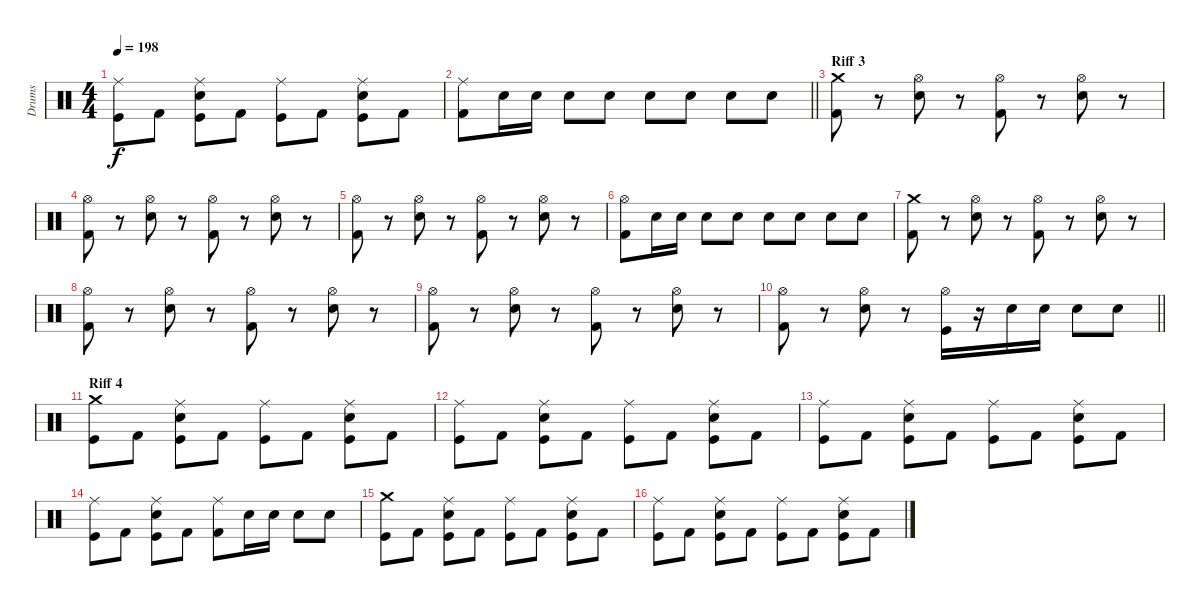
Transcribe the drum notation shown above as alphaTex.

\track ("Drums" "Drums") {instrument percussion}
\staff {score}
\articulation defaults
\ts (4 4)
\tempo 198
\clef neutral
\ks c
("Ride (middle)" "Kick (hit)").8{dy f} "Kick (hit) 2".8 ("Ride (middle)" "Electric Snare (hit)" "Kick (hit)").8 "Kick (hit) 2".8 ("Ride (middle)" "Kick (hit)").8 "Kick (hit) 2".8 ("Ride (middle)" "Electric Snare (hit)" "Kick (hit)").8 "Kick (hit) 2".8 |
\barLineRight lightlight
("Ride (middle)" "Kick (hit) 2").8 "Electric Snare (hit)".16 "Electric Snare (hit)".16 "Electric Snare (hit)".8 "Electric Snare (hit)".8 "Electric Snare (hit)".8 "Electric Snare (hit)".8 "Electric Snare (hit)".8 "Electric Snare (hit)".8 |
\section ("" "Riff 3")
("Crash medium (hit)" "Kick (hit) 2").8 r.8 ("Hi-Hat (open)" "Electric Snare (hit)").8 r.8 ("Hi-Hat (open)" "Kick (hit) 2").8 r.8 ("Hi-Hat (open)" "Electric Snare (hit)").8 r.8 |
("Hi-Hat (open)" "Kick (hit) 2").8 r.8 ("Hi-Hat (open)" "Electric Snare (hit)").8 r.8 ("Hi-Hat (open)" "Kick (hit) 2").8 r.8 ("Hi-Hat (open)" "Electric Snare (hit)").8 r.8 |
("Hi-Hat (open)" "Kick (hit) 2").8 r.8 ("Hi-Hat (open)" "Electric Snare (hit)").8 r.8 ("Hi-Hat (open)" "Kick (hit) 2").8 r.8 ("Hi-Hat (open)" "Electric Snare (hit)").8 r.8 |
("Hi-Hat (open)" "Kick (hit) 2").8 "Electric Snare (hit)".16 "Electric Snare (hit)".16 "Electric Snare (hit)".8 "Electric Snare (hit)".8 "Electric Snare (hit)".8 "Electric Snare (hit)".8 "Electric Snare (hit)".8 "Electric Snare (hit)".8 |
("Crash medium (hit)" "Kick (hit) 2").8 r.8 ("Hi-Hat (open)" "Electric Snare (hit)").8 r.8 ("Hi-Hat (open)" "Kick (hit) 2").8 r.8 ("Hi-Hat (open)" "Electric Snare (hit)").8 r.8 |
("Hi-Hat (open)" "Kick (hit) 2").8 r.8 ("Hi-Hat (open)" "Electric Snare (hit)").8 r.8 ("Hi-Hat (open)" "Kick (hit) 2").8 r.8 ("Hi-Hat (open)" "Electric Snare (hit)").8 r.8 |
("Hi-Hat (open)" "Kick (hit) 2").8 r.8 ("Hi-Hat (open)" "Electric Snare (hit)").8 r.8 ("Hi-Hat (open)" "Kick (hit) 2").8 r.8 ("Hi-Hat (open)" "Electric Snare (hit)").8 r.8 |
\barLineRight lightlight
("Hi-Hat (open)" "Kick (hit) 2").8 r.8 ("Hi-Hat (open)" "Electric Snare (hit)").8 r.8 ("Hi-Hat (open)" "Kick (hit)").16 r.16 "Electric Snare (hit)".16 "Electric Snare (hit)".16 "Electric Snare (hit)".8 "Electric Snare (hit)".8 |
\section ("" "Riff 4")
("Crash medium (hit)" "Kick (hit)").8 "Kick (hit) 2".8 ("Ride (middle)" "Electric Snare (hit)" "Kick (hit)").8 "Kick (hit) 2".8 ("Ride (middle)" "Kick (hit)").8 "Kick (hit) 2".8 ("Ride (middle)" "Electric Snare (hit)" "Kick (hit)").8 "Kick (hit) 2".8 |
("Ride (middle)" "Kick (hit)").8 "Kick (hit) 2".8 ("Ride (middle)" "Electric Snare (hit)" "Kick (hit)").8 "Kick (hit) 2".8 ("Ride (middle)" "Kick (hit)").8 "Kick (hit) 2".8 ("Ride (middle)" "Electric Snare (hit)" "Kick (hit)").8 "Kick (hit) 2".8 |
("Ride (middle)" "Kick (hit)").8 "Kick (hit) 2".8 ("Ride (middle)" "Electric Snare (hit)" "Kick (hit)").8 "Kick (hit) 2".8 ("Ride (middle)" "Kick (hit)").8 "Kick (hit) 2".8 ("Ride (middle)" "Electric Snare (hit)" "Kick (hit)").8 "Kick (hit) 2".8 |
("Ride (middle)" "Kick (hit)").8 "Kick (hit) 2".8 ("Ride (middle)" "Electric Snare (hit)" "Kick (hit)").8 "Kick (hit) 2".8 ("Ride (middle)" "Kick (hit) 2").8 "Electric Snare (hit)".16 "Electric Snare (hit)".16 "Electric Snare (hit)".8 "Electric Snare (hit)".8 |
("Crash medium (hit)" "Kick (hit)").8 "Kick (hit) 2".8 ("Ride (middle)" "Electric Snare (hit)" "Kick (hit)").8 "Kick (hit) 2".8 ("Ride (middle)" "Kick (hit)").8 "Kick (hit) 2".8 ("Ride (middle)" "Electric Snare (hit)" "Kick (hit)").8 "Kick (hit) 2".8 |
("Ride (middle)" "Kick (hit)").8 "Kick (hit) 2".8 ("Ride (middle)" "Electric Snare (hit)" "Kick (hit)").8 "Kick (hit) 2".8 ("Ride (middle)" "Kick (hit)").8 "Kick (hit) 2".8 ("Ride (middle)" "Electric Snare (hit)" "Kick (hit)").8 "Kick (hit) 2".8
